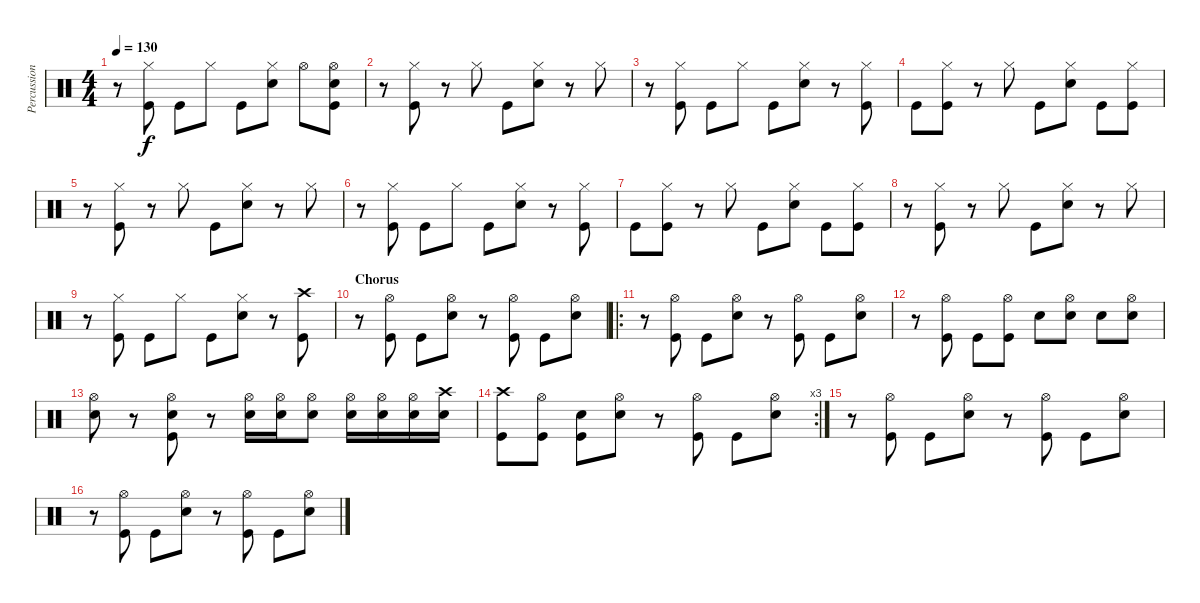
\track ("Percussion" "Percussion") {instrument percussion}
\staff {score}
\articulation defaults
\ts (4 4)
\tempo 130
\clef neutral
\ks c
r.8{dy f} ("Hi-Hat (closed)" "Kick (hit)").8 "Kick (hit)".8 "Hi-Hat (closed)".8 "Kick (hit)".8 ("Hi-Hat (closed)" "Snare (hit) 2").8 "Hi-Hat (open)".8 ("Hi-Hat (open)" "Snare (hit) 2" "Kick (hit)").8 |
r.8 ("Hi-Hat (closed)" "Kick (hit)").8 r.8 "Hi-Hat (closed)".8 "Kick (hit)".8 ("Hi-Hat (closed)" "Snare (hit) 2").8 r.8 "Hi-Hat (closed)".8 |
r.8 ("Hi-Hat (closed)" "Kick (hit)").8 "Kick (hit)".8 "Hi-Hat (closed)".8 "Kick (hit)".8 ("Hi-Hat (closed)" "Snare (hit) 2").8 r.8 ("Hi-Hat (closed)" "Kick (hit)").8 |
"Kick (hit)".8 ("Hi-Hat (closed)" "Kick (hit)").8 r.8 "Hi-Hat (closed)".8 "Kick (hit)".8 ("Hi-Hat (closed)" "Snare (hit) 2").8 "Kick (hit)".8 ("Hi-Hat (closed)" "Kick (hit)").8 |
r.8 ("Hi-Hat (closed)" "Kick (hit)").8 r.8 "Hi-Hat (closed)".8 "Kick (hit)".8 ("Hi-Hat (closed)" "Snare (hit) 2").8 r.8 "Hi-Hat (closed)".8 |
r.8 ("Hi-Hat (closed)" "Kick (hit)").8 "Kick (hit)".8 "Hi-Hat (closed)".8 "Kick (hit)".8 ("Hi-Hat (closed)" "Snare (hit) 2").8 r.8 ("Hi-Hat (closed)" "Kick (hit)").8 |
"Kick (hit)".8 ("Hi-Hat (closed)" "Kick (hit)").8 r.8 "Hi-Hat (closed)".8 "Kick (hit)".8 ("Hi-Hat (closed)" "Snare (hit) 2").8 "Kick (hit)".8 ("Hi-Hat (closed)" "Kick (hit)").8 |
r.8 ("Hi-Hat (closed)" "Kick (hit)").8 r.8 "Hi-Hat (closed)".8 "Kick (hit)".8 ("Hi-Hat (closed)" "Snare (hit) 2").8 r.8 "Hi-Hat (closed)".8 |
r.8 ("Hi-Hat (closed)" "Kick (hit)").8 "Kick (hit)".8 "Hi-Hat (closed)".8 "Kick (hit)".8 ("Hi-Hat (closed)" "Snare (hit) 2").8 r.8 ("Crash high (hit)" "Kick (hit)").8 |
\section ("" "Chorus")
r.8 ("Hi-Hat (open)" "Kick (hit)").8 "Kick (hit)".8 ("Hi-Hat (open)" "Snare (hit) 2").8 r.8 ("Hi-Hat (open)" "Kick (hit)").8 "Kick (hit)".8 ("Hi-Hat (open)" "Snare (hit) 2").8 |
\ro
r.8 ("Hi-Hat (open)" "Kick (hit)").8 "Kick (hit)".8 ("Hi-Hat (open)" "Snare (hit) 2").8 r.8 ("Hi-Hat (open)" "Kick (hit)").8 "Kick (hit)".8 ("Hi-Hat (open)" "Snare (hit) 2").8 |
r.8 ("Hi-Hat (open)" "Kick (hit)").8 "Kick (hit)".8 ("Hi-Hat (open)" "Kick (hit)").8 "Snare (hit) 2".8 ("Hi-Hat (open)" "Snare (hit) 2").8 "Snare (hit) 2".8 ("Hi-Hat (open)" "Snare (hit) 2").8 |
("Hi-Hat (open)" "Snare (hit) 2").8 r.8 ("Hi-Hat (open)" "Snare (hit) 2" "Kick (hit)").8 r.8 ("Hi-Hat (open)" "Snare (hit) 2").16 ("Hi-Hat (open)" "Snare (hit) 2").16 ("Hi-Hat (open)" "Snare (hit) 2").8 ("Hi-Hat (open)" "Snare (hit) 2").16 ("Hi-Hat (open)" "Snare (hit) 2").16 ("Hi-Hat (open)" "Snare (hit) 2").16 ("Crash high (hit)" "Snare (hit) 2").16 |
\rc 3
("Crash high (hit)" "Kick (hit)").8 ("Hi-Hat (open)" "Kick (hit)").8 ("Snare (hit) 2" "Kick (hit)").8 ("Hi-Hat (open)" "Snare (hit) 2").8 r.8 ("Hi-Hat (open)" "Kick (hit)").8 "Kick (hit)".8 ("Hi-Hat (open)" "Snare (hit) 2").8 |
r.8 ("Hi-Hat (open)" "Kick (hit)").8 "Kick (hit)".8 ("Hi-Hat (open)" "Snare (hit) 2").8 r.8 ("Hi-Hat (open)" "Kick (hit)").8 "Kick (hit)".8 ("Hi-Hat (open)" "Snare (hit) 2").8 |
r.8 ("Hi-Hat (open)" "Kick (hit)").8 "Kick (hit)".8 ("Hi-Hat (open)" "Snare (hit) 2").8 r.8 ("Hi-Hat (open)" "Kick (hit)").8 "Kick (hit)".8 ("Hi-Hat (open)" "Snare (hit) 2").8
